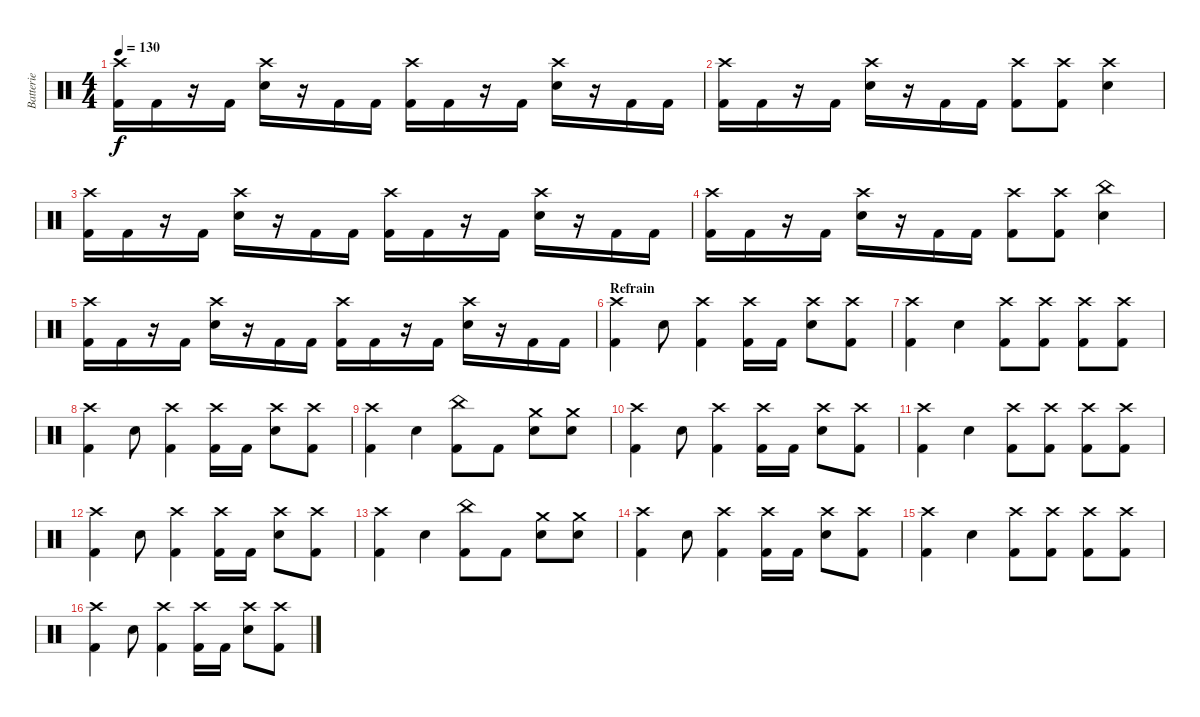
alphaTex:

\track ("Batterie" "Batterie") {instrument percussion}
\staff {score}
\articulation defaults
\ts (4 4)
\tempo 130
\clef neutral
\ks c
("Crash high (hit)" "Kick (hit) 2").16{dy f} "Kick (hit) 2".16 r.16 "Kick (hit) 2".16 ("Crash high (hit)" "Electric Snare (hit)").16 r.16 "Kick (hit) 2".16 "Kick (hit) 2".16 ("Crash high (hit)" "Kick (hit) 2").16 "Kick (hit) 2".16 r.16 "Kick (hit) 2".16 ("Crash high (hit)" "Electric Snare (hit)").16 r.16 "Kick (hit) 2".16 "Kick (hit) 2".16 |
("Crash high (hit)" "Kick (hit) 2").16 "Kick (hit) 2".16 r.16 "Kick (hit) 2".16 ("Crash high (hit)" "Electric Snare (hit)").16 r.16 "Kick (hit) 2".16 "Kick (hit) 2".16 ("Crash high (hit)" "Kick (hit) 2").8 ("Crash high (hit)" "Kick (hit) 2").8 ("Crash high (hit)" "Electric Snare (hit)").4 |
("Crash high (hit)" "Kick (hit) 2").16 "Kick (hit) 2".16 r.16 "Kick (hit) 2".16 ("Crash high (hit)" "Electric Snare (hit)").16 r.16 "Kick (hit) 2".16 "Kick (hit) 2".16 ("Crash high (hit)" "Kick (hit) 2").16 "Kick (hit) 2".16 r.16 "Kick (hit) 2".16 ("Crash high (hit)" "Electric Snare (hit)").16 r.16 "Kick (hit) 2".16 "Kick (hit) 2".16 |
("Crash high (hit)" "Kick (hit) 2").16 "Kick (hit) 2".16 r.16 "Kick (hit) 2".16 ("Crash high (hit)" "Electric Snare (hit)").16 r.16 "Kick (hit) 2".16 "Kick (hit) 2".16 ("Crash high (hit)" "Kick (hit) 2").8 ("Crash high (hit)" "Kick (hit) 2").8 ("China (hit)" "Electric Snare (hit)").4 |
("Crash high (hit)" "Kick (hit) 2").16 "Kick (hit) 2".16 r.16 "Kick (hit) 2".16 ("Crash high (hit)" "Electric Snare (hit)").16 r.16 "Kick (hit) 2".16 "Kick (hit) 2".16 ("Crash high (hit)" "Kick (hit) 2").16 "Kick (hit) 2".16 r.16 "Kick (hit) 2".16 ("Crash high (hit)" "Electric Snare (hit)").16 r.16 "Kick (hit) 2".16 "Kick (hit) 2".16 |
\section ("" "Refrain")
("Crash high (hit)" "Kick (hit) 2").4 "Electric Snare (hit)".8 ("Crash high (hit)" "Kick (hit) 2").4 ("Crash high (hit)" "Kick (hit) 2").16 "Kick (hit) 2".16 ("Crash high (hit)" "Electric Snare (hit)").8 ("Crash high (hit)" "Kick (hit) 2").8 |
("Crash high (hit)" "Kick (hit) 2").4 "Electric Snare (hit)".4 ("Crash high (hit)" "Kick (hit) 2").8 ("Crash high (hit)" "Kick (hit) 2").8 ("Crash high (hit)" "Kick (hit) 2").8 ("Crash high (hit)" "Kick (hit) 2").8 |
("Crash high (hit)" "Kick (hit) 2").4 "Electric Snare (hit)".8 ("Crash high (hit)" "Kick (hit) 2").4 ("Crash high (hit)" "Kick (hit) 2").16 "Kick (hit) 2".16 ("Crash high (hit)" "Electric Snare (hit)").8 ("Crash high (hit)" "Kick (hit) 2").8 |
("Crash high (hit)" "Kick (hit) 2").4 "Electric Snare (hit)".4 ("China (hit)" "Kick (hit) 2").8 "Kick (hit) 2".8 ("Crash medium (hit)" "Electric Snare (hit)").8 ("Crash medium (hit)" "Electric Snare (hit)").8 |
("Crash high (hit)" "Kick (hit) 2").4 "Electric Snare (hit)".8 ("Crash high (hit)" "Kick (hit) 2").4 ("Crash high (hit)" "Kick (hit) 2").16 "Kick (hit) 2".16 ("Crash high (hit)" "Electric Snare (hit)").8 ("Crash high (hit)" "Kick (hit) 2").8 |
("Crash high (hit)" "Kick (hit) 2").4 "Electric Snare (hit)".4 ("Crash high (hit)" "Kick (hit) 2").8 ("Crash high (hit)" "Kick (hit) 2").8 ("Crash high (hit)" "Kick (hit) 2").8 ("Crash high (hit)" "Kick (hit) 2").8 |
("Crash high (hit)" "Kick (hit) 2").4 "Electric Snare (hit)".8 ("Crash high (hit)" "Kick (hit) 2").4 ("Crash high (hit)" "Kick (hit) 2").16 "Kick (hit) 2".16 ("Crash high (hit)" "Electric Snare (hit)").8 ("Crash high (hit)" "Kick (hit) 2").8 |
("Crash high (hit)" "Kick (hit) 2").4 "Electric Snare (hit)".4 ("China (hit)" "Kick (hit) 2").8 "Kick (hit) 2".8 ("Crash medium (hit)" "Electric Snare (hit)").8 ("Crash medium (hit)" "Electric Snare (hit)").8 |
("Crash high (hit)" "Kick (hit) 2").4 "Electric Snare (hit)".8 ("Crash high (hit)" "Kick (hit) 2").4 ("Crash high (hit)" "Kick (hit) 2").16 "Kick (hit) 2".16 ("Crash high (hit)" "Electric Snare (hit)").8 ("Crash high (hit)" "Kick (hit) 2").8 |
("Crash high (hit)" "Kick (hit) 2").4 "Electric Snare (hit)".4 ("Crash high (hit)" "Kick (hit) 2").8 ("Crash high (hit)" "Kick (hit) 2").8 ("Crash high (hit)" "Kick (hit) 2").8 ("Crash high (hit)" "Kick (hit) 2").8 |
("Crash high (hit)" "Kick (hit) 2").4 "Electric Snare (hit)".8 ("Crash high (hit)" "Kick (hit) 2").4 ("Crash high (hit)" "Kick (hit) 2").16 "Kick (hit) 2".16 ("Crash high (hit)" "Electric Snare (hit)").8 ("Crash high (hit)" "Kick (hit) 2").8
